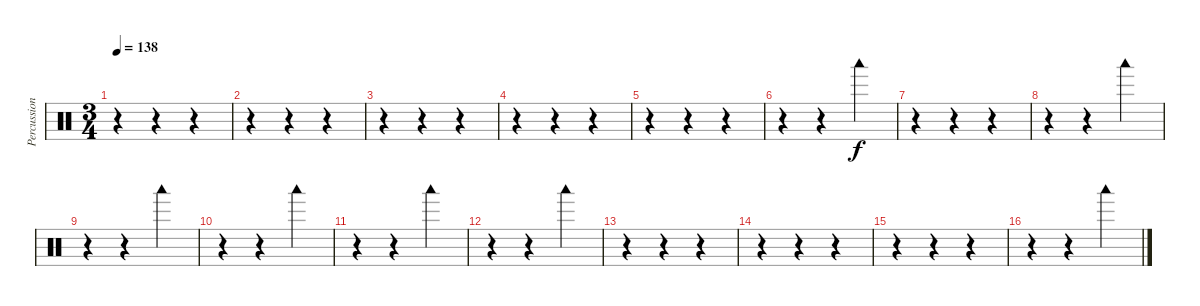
\track ("Percussions" "Percussion") {instrument percussion}
\staff {score}
\articulation defaults
\ts (3 4)
\tempo 138
\clef neutral
\ks c
r.4{dy f} r.4 r.4 |
r.4 r.4 r.4 |
r.4 r.4 r.4 |
r.4 r.4 r.4 |
r.4 r.4 r.4 |
r.4 r.4 "Woodblock low (hit)".4 |
r.4 r.4 r.4 |
r.4 r.4 "Woodblock low (hit)".4 |
r.4 r.4 "Woodblock low (hit)".4 |
r.4 r.4 "Woodblock low (hit)".4 |
r.4 r.4 "Woodblock low (hit)".4 |
r.4 r.4 "Woodblock low (hit)".4 |
r.4 r.4 r.4 |
r.4 r.4 r.4 |
r.4 r.4 r.4 |
r.4 r.4 "Woodblock low (hit)".4
